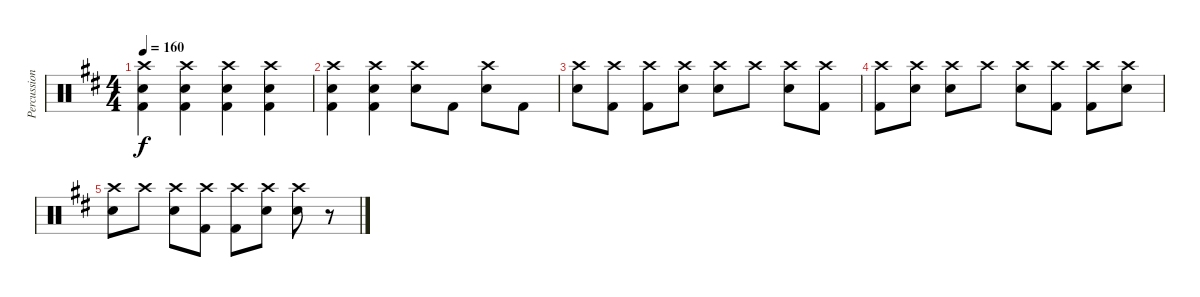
\track ("Percussion" "Percussion") {instrument percussion}
\staff {score}
\articulation defaults
\ts (4 4)
\tempo 160
\clef neutral
\ks d
("Crash high (hit)" "Electric Snare (hit)" "Kick (hit) 2").4{dy f} ("Crash high (hit)" "Electric Snare (hit)" "Kick (hit) 2").4 ("Crash high (hit)" "Electric Snare (hit)" "Kick (hit) 2").4 ("Crash high (hit)" "Electric Snare (hit)" "Kick (hit) 2").4 |
("Crash high (hit)" "Electric Snare (hit)" "Kick (hit) 2").4 ("Crash high (hit)" "Electric Snare (hit)" "Kick (hit) 2").4 ("Crash high (hit)" "Electric Snare (hit)").8 "Kick (hit) 2".8 ("Crash high (hit)" "Electric Snare (hit)").8 "Kick (hit) 2".8 |
("Crash high (hit)" "Electric Snare (hit)").8 ("Crash high (hit)" "Kick (hit) 2").8 ("Crash high (hit)" "Kick (hit) 2").8 ("Crash high (hit)" "Electric Snare (hit)").8 ("Crash high (hit)" "Electric Snare (hit)").8 "Crash high (hit)".8 ("Crash high (hit)" "Electric Snare (hit)").8 ("Crash high (hit)" "Kick (hit) 2").8 |
("Crash high (hit)" "Kick (hit) 2").8 ("Crash high (hit)" "Electric Snare (hit)").8 ("Crash high (hit)" "Electric Snare (hit)").8 "Crash high (hit)".8 ("Crash high (hit)" "Electric Snare (hit)").8 ("Crash high (hit)" "Kick (hit) 2").8 ("Crash high (hit)" "Kick (hit) 2").8 ("Crash high (hit)" "Electric Snare (hit)").8 |
("Crash high (hit)" "Electric Snare (hit)").8 "Crash high (hit)".8 ("Crash high (hit)" "Electric Snare (hit)").8 ("Crash high (hit)" "Kick (hit) 2").8 ("Crash high (hit)" "Kick (hit) 2").8 ("Crash high (hit)" "Electric Snare (hit)").8 ("Crash high (hit)" "Electric Snare (hit)").8 r.8
